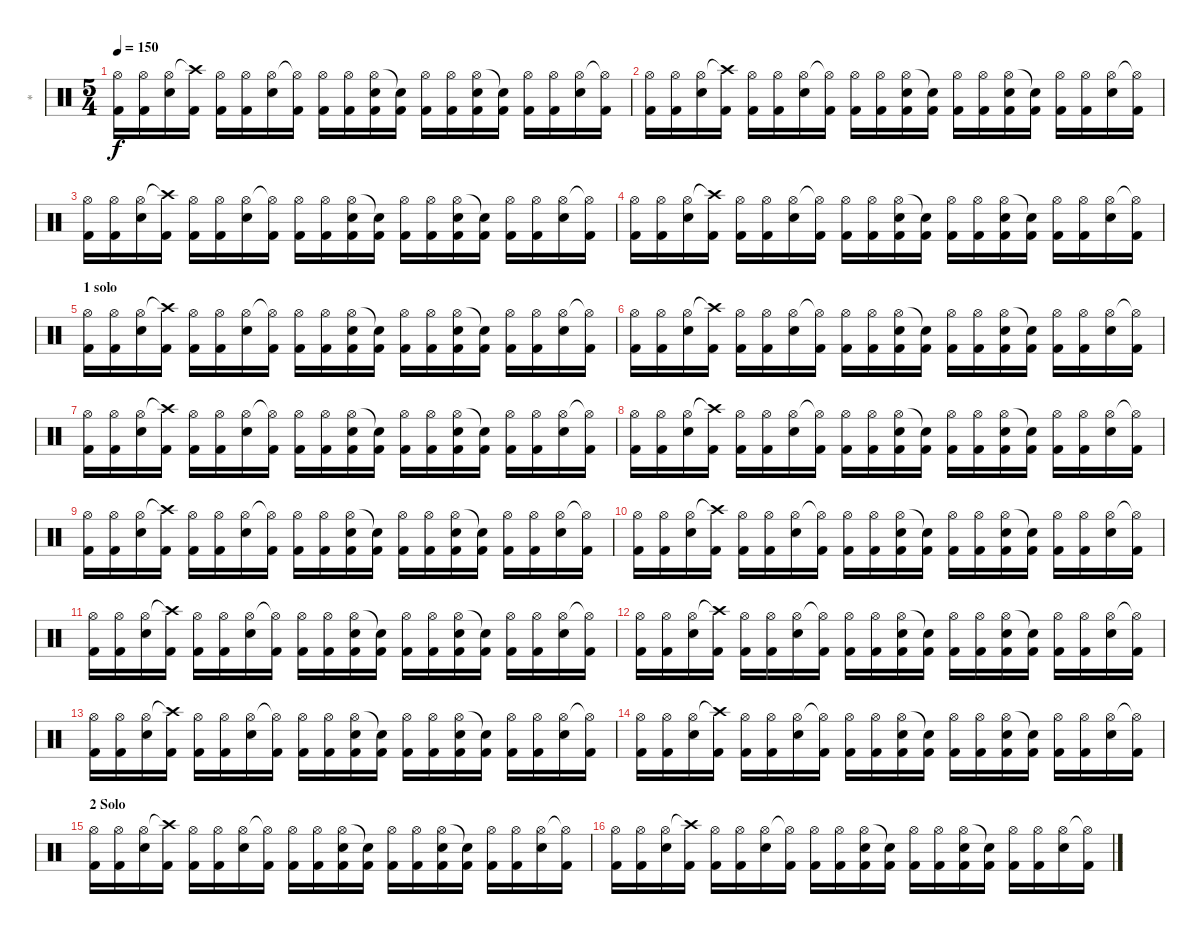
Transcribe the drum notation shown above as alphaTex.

\track ("*" "*") {instrument percussion}
\staff {score}
\articulation defaults
\ts (5 4)
\tempo 150
\clef neutral
\ks c
("Hi-Hat (open)" "Kick (hit) 2").16{dy f} ("Hi-Hat (open)" "Kick (hit) 2").16 ("Hi-Hat (open)" "Electric Snare (hit)").16 ("Crash high (hit)"{t} "Kick (hit) 2").16 ("Hi-Hat (open)" "Kick (hit) 2").16 ("Hi-Hat (open)" "Kick (hit) 2").16 ("Hi-Hat (open)" "Electric Snare (hit)").16 ("Hi-Hat (open)"{t} "Kick (hit) 2").16 ("Hi-Hat (open)" "Kick (hit) 2").16 ("Hi-Hat (open)" "Kick (hit) 2").16 ("Hi-Hat (open)" "Electric Snare (hit)" "Kick (hit) 2"{x}).16 ("Snare (hit)"{t} "Kick (hit) 2").16 ("Hi-Hat (open)" "Kick (hit) 2").16 ("Hi-Hat (open)" "Kick (hit) 2").16 ("Hi-Hat (open)" "Electric Snare (hit)" "Kick (hit) 2"{x}).16 ("Snare (hit)"{t} "Kick (hit) 2").16 ("Hi-Hat (open)" "Kick (hit) 2").16 ("Hi-Hat (open)" "Kick (hit) 2").16 ("Hi-Hat (open)" "Electric Snare (hit)").16 ("Hi-Hat (open)"{t} "Kick (hit) 2").16 |
("Hi-Hat (open)" "Kick (hit) 2").16 ("Hi-Hat (open)" "Kick (hit) 2").16 ("Hi-Hat (open)" "Electric Snare (hit)").16 ("Crash high (hit)"{t} "Kick (hit) 2").16 ("Hi-Hat (open)" "Kick (hit) 2").16 ("Hi-Hat (open)" "Kick (hit) 2").16 ("Hi-Hat (open)" "Electric Snare (hit)").16 ("Hi-Hat (open)"{t} "Kick (hit) 2").16 ("Hi-Hat (open)" "Kick (hit) 2").16 ("Hi-Hat (open)" "Kick (hit) 2").16 ("Hi-Hat (open)" "Electric Snare (hit)" "Kick (hit) 2"{x}).16 ("Snare (hit)"{t} "Kick (hit) 2").16 ("Hi-Hat (open)" "Kick (hit) 2").16 ("Hi-Hat (open)" "Kick (hit) 2").16 ("Hi-Hat (open)" "Electric Snare (hit)" "Kick (hit) 2"{x}).16 ("Snare (hit)"{t} "Kick (hit) 2").16 ("Hi-Hat (open)" "Kick (hit) 2").16 ("Hi-Hat (open)" "Kick (hit) 2").16 ("Hi-Hat (open)" "Electric Snare (hit)").16 ("Hi-Hat (open)"{t} "Kick (hit) 2").16 |
("Hi-Hat (open)" "Kick (hit) 2").16 ("Hi-Hat (open)" "Kick (hit) 2").16 ("Hi-Hat (open)" "Electric Snare (hit)").16 ("Crash high (hit)"{t} "Kick (hit) 2").16 ("Hi-Hat (open)" "Kick (hit) 2").16 ("Hi-Hat (open)" "Kick (hit) 2").16 ("Hi-Hat (open)" "Electric Snare (hit)").16 ("Hi-Hat (open)"{t} "Kick (hit) 2").16 ("Hi-Hat (open)" "Kick (hit) 2").16 ("Hi-Hat (open)" "Kick (hit) 2").16 ("Hi-Hat (open)" "Electric Snare (hit)" "Kick (hit) 2"{x}).16 ("Snare (hit)"{t} "Kick (hit) 2").16 ("Hi-Hat (open)" "Kick (hit) 2").16 ("Hi-Hat (open)" "Kick (hit) 2").16 ("Hi-Hat (open)" "Electric Snare (hit)" "Kick (hit) 2"{x}).16 ("Snare (hit)"{t} "Kick (hit) 2").16 ("Hi-Hat (open)" "Kick (hit) 2").16 ("Hi-Hat (open)" "Kick (hit) 2").16 ("Hi-Hat (open)" "Electric Snare (hit)").16 ("Hi-Hat (open)"{t} "Kick (hit) 2").16 |
("Hi-Hat (open)" "Kick (hit) 2").16 ("Hi-Hat (open)" "Kick (hit) 2").16 ("Hi-Hat (open)" "Electric Snare (hit)").16 ("Crash high (hit)"{t} "Kick (hit) 2").16 ("Hi-Hat (open)" "Kick (hit) 2").16 ("Hi-Hat (open)" "Kick (hit) 2").16 ("Hi-Hat (open)" "Electric Snare (hit)").16 ("Hi-Hat (open)"{t} "Kick (hit) 2").16 ("Hi-Hat (open)" "Kick (hit) 2").16 ("Hi-Hat (open)" "Kick (hit) 2").16 ("Hi-Hat (open)" "Electric Snare (hit)" "Kick (hit) 2"{x}).16 ("Snare (hit)"{t} "Kick (hit) 2").16 ("Hi-Hat (open)" "Kick (hit) 2").16 ("Hi-Hat (open)" "Kick (hit) 2").16 ("Hi-Hat (open)" "Electric Snare (hit)" "Kick (hit) 2"{x}).16 ("Snare (hit)"{t} "Kick (hit) 2").16 ("Hi-Hat (open)" "Kick (hit) 2").16 ("Hi-Hat (open)" "Kick (hit) 2").16 ("Hi-Hat (open)" "Electric Snare (hit)").16 ("Hi-Hat (open)"{t} "Kick (hit) 2").16 |
\section ("" "1 solo")
("Hi-Hat (open)" "Kick (hit) 2").16 ("Hi-Hat (open)" "Kick (hit) 2").16 ("Hi-Hat (open)" "Electric Snare (hit)").16 ("Crash high (hit)"{t} "Kick (hit) 2").16 ("Hi-Hat (open)" "Kick (hit) 2").16 ("Hi-Hat (open)" "Kick (hit) 2").16 ("Hi-Hat (open)" "Electric Snare (hit)").16 ("Hi-Hat (open)"{t} "Kick (hit) 2").16 ("Hi-Hat (open)" "Kick (hit) 2").16 ("Hi-Hat (open)" "Kick (hit) 2").16 ("Hi-Hat (open)" "Electric Snare (hit)" "Kick (hit) 2"{x}).16 ("Snare (hit)"{t} "Kick (hit) 2").16 ("Hi-Hat (open)" "Kick (hit) 2").16 ("Hi-Hat (open)" "Kick (hit) 2").16 ("Hi-Hat (open)" "Electric Snare (hit)" "Kick (hit) 2"{x}).16 ("Snare (hit)"{t} "Kick (hit) 2").16 ("Hi-Hat (open)" "Kick (hit) 2").16 ("Hi-Hat (open)" "Kick (hit) 2").16 ("Hi-Hat (open)" "Electric Snare (hit)").16 ("Hi-Hat (open)"{t} "Kick (hit) 2").16 |
("Hi-Hat (open)" "Kick (hit) 2").16 ("Hi-Hat (open)" "Kick (hit) 2").16 ("Hi-Hat (open)" "Electric Snare (hit)").16 ("Crash high (hit)"{t} "Kick (hit) 2").16 ("Hi-Hat (open)" "Kick (hit) 2").16 ("Hi-Hat (open)" "Kick (hit) 2").16 ("Hi-Hat (open)" "Electric Snare (hit)").16 ("Hi-Hat (open)"{t} "Kick (hit) 2").16 ("Hi-Hat (open)" "Kick (hit) 2").16 ("Hi-Hat (open)" "Kick (hit) 2").16 ("Hi-Hat (open)" "Electric Snare (hit)" "Kick (hit) 2"{x}).16 ("Snare (hit)"{t} "Kick (hit) 2").16 ("Hi-Hat (open)" "Kick (hit) 2").16 ("Hi-Hat (open)" "Kick (hit) 2").16 ("Hi-Hat (open)" "Electric Snare (hit)" "Kick (hit) 2"{x}).16 ("Snare (hit)"{t} "Kick (hit) 2").16 ("Hi-Hat (open)" "Kick (hit) 2").16 ("Hi-Hat (open)" "Kick (hit) 2").16 ("Hi-Hat (open)" "Electric Snare (hit)").16 ("Hi-Hat (open)"{t} "Kick (hit) 2").16 |
("Hi-Hat (open)" "Kick (hit) 2").16 ("Hi-Hat (open)" "Kick (hit) 2").16 ("Hi-Hat (open)" "Electric Snare (hit)").16 ("Crash high (hit)"{t} "Kick (hit) 2").16 ("Hi-Hat (open)" "Kick (hit) 2").16 ("Hi-Hat (open)" "Kick (hit) 2").16 ("Hi-Hat (open)" "Electric Snare (hit)").16 ("Hi-Hat (open)"{t} "Kick (hit) 2").16 ("Hi-Hat (open)" "Kick (hit) 2").16 ("Hi-Hat (open)" "Kick (hit) 2").16 ("Hi-Hat (open)" "Electric Snare (hit)" "Kick (hit) 2"{x}).16 ("Snare (hit)"{t} "Kick (hit) 2").16 ("Hi-Hat (open)" "Kick (hit) 2").16 ("Hi-Hat (open)" "Kick (hit) 2").16 ("Hi-Hat (open)" "Electric Snare (hit)" "Kick (hit) 2"{x}).16 ("Snare (hit)"{t} "Kick (hit) 2").16 ("Hi-Hat (open)" "Kick (hit) 2").16 ("Hi-Hat (open)" "Kick (hit) 2").16 ("Hi-Hat (open)" "Electric Snare (hit)").16 ("Hi-Hat (open)"{t} "Kick (hit) 2").16 |
("Hi-Hat (open)" "Kick (hit) 2").16 ("Hi-Hat (open)" "Kick (hit) 2").16 ("Hi-Hat (open)" "Electric Snare (hit)").16 ("Crash high (hit)"{t} "Kick (hit) 2").16 ("Hi-Hat (open)" "Kick (hit) 2").16 ("Hi-Hat (open)" "Kick (hit) 2").16 ("Hi-Hat (open)" "Electric Snare (hit)").16 ("Hi-Hat (open)"{t} "Kick (hit) 2").16 ("Hi-Hat (open)" "Kick (hit) 2").16 ("Hi-Hat (open)" "Kick (hit) 2").16 ("Hi-Hat (open)" "Electric Snare (hit)" "Kick (hit) 2"{x}).16 ("Snare (hit)"{t} "Kick (hit) 2").16 ("Hi-Hat (open)" "Kick (hit) 2").16 ("Hi-Hat (open)" "Kick (hit) 2").16 ("Hi-Hat (open)" "Electric Snare (hit)" "Kick (hit) 2"{x}).16 ("Snare (hit)"{t} "Kick (hit) 2").16 ("Hi-Hat (open)" "Kick (hit) 2").16 ("Hi-Hat (open)" "Kick (hit) 2").16 ("Hi-Hat (open)" "Electric Snare (hit)").16 ("Hi-Hat (open)"{t} "Kick (hit) 2").16 |
("Hi-Hat (open)" "Kick (hit) 2").16 ("Hi-Hat (open)" "Kick (hit) 2").16 ("Hi-Hat (open)" "Electric Snare (hit)").16 ("Crash high (hit)"{t} "Kick (hit) 2").16 ("Hi-Hat (open)" "Kick (hit) 2").16 ("Hi-Hat (open)" "Kick (hit) 2").16 ("Hi-Hat (open)" "Electric Snare (hit)").16 ("Hi-Hat (open)"{t} "Kick (hit) 2").16 ("Hi-Hat (open)" "Kick (hit) 2").16 ("Hi-Hat (open)" "Kick (hit) 2").16 ("Hi-Hat (open)" "Electric Snare (hit)" "Kick (hit) 2"{x}).16 ("Snare (hit)"{t} "Kick (hit) 2").16 ("Hi-Hat (open)" "Kick (hit) 2").16 ("Hi-Hat (open)" "Kick (hit) 2").16 ("Hi-Hat (open)" "Electric Snare (hit)" "Kick (hit) 2"{x}).16 ("Snare (hit)"{t} "Kick (hit) 2").16 ("Hi-Hat (open)" "Kick (hit) 2").16 ("Hi-Hat (open)" "Kick (hit) 2").16 ("Hi-Hat (open)" "Electric Snare (hit)").16 ("Hi-Hat (open)"{t} "Kick (hit) 2").16 |
("Hi-Hat (open)" "Kick (hit) 2").16 ("Hi-Hat (open)" "Kick (hit) 2").16 ("Hi-Hat (open)" "Electric Snare (hit)").16 ("Crash high (hit)"{t} "Kick (hit) 2").16 ("Hi-Hat (open)" "Kick (hit) 2").16 ("Hi-Hat (open)" "Kick (hit) 2").16 ("Hi-Hat (open)" "Electric Snare (hit)").16 ("Hi-Hat (open)"{t} "Kick (hit) 2").16 ("Hi-Hat (open)" "Kick (hit) 2").16 ("Hi-Hat (open)" "Kick (hit) 2").16 ("Hi-Hat (open)" "Electric Snare (hit)" "Kick (hit) 2"{x}).16 ("Snare (hit)"{t} "Kick (hit) 2").16 ("Hi-Hat (open)" "Kick (hit) 2").16 ("Hi-Hat (open)" "Kick (hit) 2").16 ("Hi-Hat (open)" "Electric Snare (hit)" "Kick (hit) 2"{x}).16 ("Snare (hit)"{t} "Kick (hit) 2").16 ("Hi-Hat (open)" "Kick (hit) 2").16 ("Hi-Hat (open)" "Kick (hit) 2").16 ("Hi-Hat (open)" "Electric Snare (hit)").16 ("Hi-Hat (open)"{t} "Kick (hit) 2").16 |
("Hi-Hat (open)" "Kick (hit) 2").16 ("Hi-Hat (open)" "Kick (hit) 2").16 ("Hi-Hat (open)" "Electric Snare (hit)").16 ("Crash high (hit)"{t} "Kick (hit) 2").16 ("Hi-Hat (open)" "Kick (hit) 2").16 ("Hi-Hat (open)" "Kick (hit) 2").16 ("Hi-Hat (open)" "Electric Snare (hit)").16 ("Hi-Hat (open)"{t} "Kick (hit) 2").16 ("Hi-Hat (open)" "Kick (hit) 2").16 ("Hi-Hat (open)" "Kick (hit) 2").16 ("Hi-Hat (open)" "Electric Snare (hit)" "Kick (hit) 2"{x}).16 ("Snare (hit)"{t} "Kick (hit) 2").16 ("Hi-Hat (open)" "Kick (hit) 2").16 ("Hi-Hat (open)" "Kick (hit) 2").16 ("Hi-Hat (open)" "Electric Snare (hit)" "Kick (hit) 2"{x}).16 ("Snare (hit)"{t} "Kick (hit) 2").16 ("Hi-Hat (open)" "Kick (hit) 2").16 ("Hi-Hat (open)" "Kick (hit) 2").16 ("Hi-Hat (open)" "Electric Snare (hit)").16 ("Hi-Hat (open)"{t} "Kick (hit) 2").16 |
("Hi-Hat (open)" "Kick (hit) 2").16 ("Hi-Hat (open)" "Kick (hit) 2").16 ("Hi-Hat (open)" "Electric Snare (hit)").16 ("Crash high (hit)"{t} "Kick (hit) 2").16 ("Hi-Hat (open)" "Kick (hit) 2").16 ("Hi-Hat (open)" "Kick (hit) 2").16 ("Hi-Hat (open)" "Electric Snare (hit)").16 ("Hi-Hat (open)"{t} "Kick (hit) 2").16 ("Hi-Hat (open)" "Kick (hit) 2").16 ("Hi-Hat (open)" "Kick (hit) 2").16 ("Hi-Hat (open)" "Electric Snare (hit)" "Kick (hit) 2"{x}).16 ("Snare (hit)"{t} "Kick (hit) 2").16 ("Hi-Hat (open)" "Kick (hit) 2").16 ("Hi-Hat (open)" "Kick (hit) 2").16 ("Hi-Hat (open)" "Electric Snare (hit)" "Kick (hit) 2"{x}).16 ("Snare (hit)"{t} "Kick (hit) 2").16 ("Hi-Hat (open)" "Kick (hit) 2").16 ("Hi-Hat (open)" "Kick (hit) 2").16 ("Hi-Hat (open)" "Electric Snare (hit)").16 ("Hi-Hat (open)"{t} "Kick (hit) 2").16 |
("Hi-Hat (open)" "Kick (hit) 2").16 ("Hi-Hat (open)" "Kick (hit) 2").16 ("Hi-Hat (open)" "Electric Snare (hit)").16 ("Crash high (hit)"{t} "Kick (hit) 2").16 ("Hi-Hat (open)" "Kick (hit) 2").16 ("Hi-Hat (open)" "Kick (hit) 2").16 ("Hi-Hat (open)" "Electric Snare (hit)").16 ("Hi-Hat (open)"{t} "Kick (hit) 2").16 ("Hi-Hat (open)" "Kick (hit) 2").16 ("Hi-Hat (open)" "Kick (hit) 2").16 ("Hi-Hat (open)" "Electric Snare (hit)" "Kick (hit) 2"{x}).16 ("Snare (hit)"{t} "Kick (hit) 2").16 ("Hi-Hat (open)" "Kick (hit) 2").16 ("Hi-Hat (open)" "Kick (hit) 2").16 ("Hi-Hat (open)" "Electric Snare (hit)" "Kick (hit) 2"{x}).16 ("Snare (hit)"{t} "Kick (hit) 2").16 ("Hi-Hat (open)" "Kick (hit) 2").16 ("Hi-Hat (open)" "Kick (hit) 2").16 ("Hi-Hat (open)" "Electric Snare (hit)").16 ("Hi-Hat (open)"{t} "Kick (hit) 2").16 |
("Hi-Hat (open)" "Kick (hit) 2").16 ("Hi-Hat (open)" "Kick (hit) 2").16 ("Hi-Hat (open)" "Electric Snare (hit)").16 ("Crash high (hit)"{t} "Kick (hit) 2").16 ("Hi-Hat (open)" "Kick (hit) 2").16 ("Hi-Hat (open)" "Kick (hit) 2").16 ("Hi-Hat (open)" "Electric Snare (hit)").16 ("Hi-Hat (open)"{t} "Kick (hit) 2").16 ("Hi-Hat (open)" "Kick (hit) 2").16 ("Hi-Hat (open)" "Kick (hit) 2").16 ("Hi-Hat (open)" "Electric Snare (hit)" "Kick (hit) 2"{x}).16 ("Snare (hit)"{t} "Kick (hit) 2").16 ("Hi-Hat (open)" "Kick (hit) 2").16 ("Hi-Hat (open)" "Kick (hit) 2").16 ("Hi-Hat (open)" "Electric Snare (hit)" "Kick (hit) 2"{x}).16 ("Snare (hit)"{t} "Kick (hit) 2").16 ("Hi-Hat (open)" "Kick (hit) 2").16 ("Hi-Hat (open)" "Kick (hit) 2").16 ("Hi-Hat (open)" "Electric Snare (hit)").16 ("Hi-Hat (open)"{t} "Kick (hit) 2").16 |
\section ("" "2 Solo")
("Hi-Hat (open)" "Kick (hit) 2").16 ("Hi-Hat (open)" "Kick (hit) 2").16 ("Hi-Hat (open)" "Electric Snare (hit)").16 ("Crash high (hit)"{t} "Kick (hit) 2").16 ("Hi-Hat (open)" "Kick (hit) 2").16 ("Hi-Hat (open)" "Kick (hit) 2").16 ("Hi-Hat (open)" "Electric Snare (hit)").16 ("Hi-Hat (open)"{t} "Kick (hit) 2").16 ("Hi-Hat (open)" "Kick (hit) 2").16 ("Hi-Hat (open)" "Kick (hit) 2").16 ("Hi-Hat (open)" "Electric Snare (hit)" "Kick (hit) 2"{x}).16 ("Snare (hit)"{t} "Kick (hit) 2").16 ("Hi-Hat (open)" "Kick (hit) 2").16 ("Hi-Hat (open)" "Kick (hit) 2").16 ("Hi-Hat (open)" "Electric Snare (hit)" "Kick (hit) 2"{x}).16 ("Snare (hit)"{t} "Kick (hit) 2").16 ("Hi-Hat (open)" "Kick (hit) 2").16 ("Hi-Hat (open)" "Kick (hit) 2").16 ("Hi-Hat (open)" "Electric Snare (hit)").16 ("Hi-Hat (open)"{t} "Kick (hit) 2").16 |
("Hi-Hat (open)" "Kick (hit) 2").16 ("Hi-Hat (open)" "Kick (hit) 2").16 ("Hi-Hat (open)" "Electric Snare (hit)").16 ("Crash high (hit)"{t} "Kick (hit) 2").16 ("Hi-Hat (open)" "Kick (hit) 2").16 ("Hi-Hat (open)" "Kick (hit) 2").16 ("Hi-Hat (open)" "Electric Snare (hit)").16 ("Hi-Hat (open)"{t} "Kick (hit) 2").16 ("Hi-Hat (open)" "Kick (hit) 2").16 ("Hi-Hat (open)" "Kick (hit) 2").16 ("Hi-Hat (open)" "Electric Snare (hit)" "Kick (hit) 2"{x}).16 ("Snare (hit)"{t} "Kick (hit) 2").16 ("Hi-Hat (open)" "Kick (hit) 2").16 ("Hi-Hat (open)" "Kick (hit) 2").16 ("Hi-Hat (open)" "Electric Snare (hit)" "Kick (hit) 2"{x}).16 ("Snare (hit)"{t} "Kick (hit) 2").16 ("Hi-Hat (open)" "Kick (hit) 2").16 ("Hi-Hat (open)" "Kick (hit) 2").16 ("Hi-Hat (open)" "Electric Snare (hit)").16 ("Hi-Hat (open)"{t} "Kick (hit) 2").16
